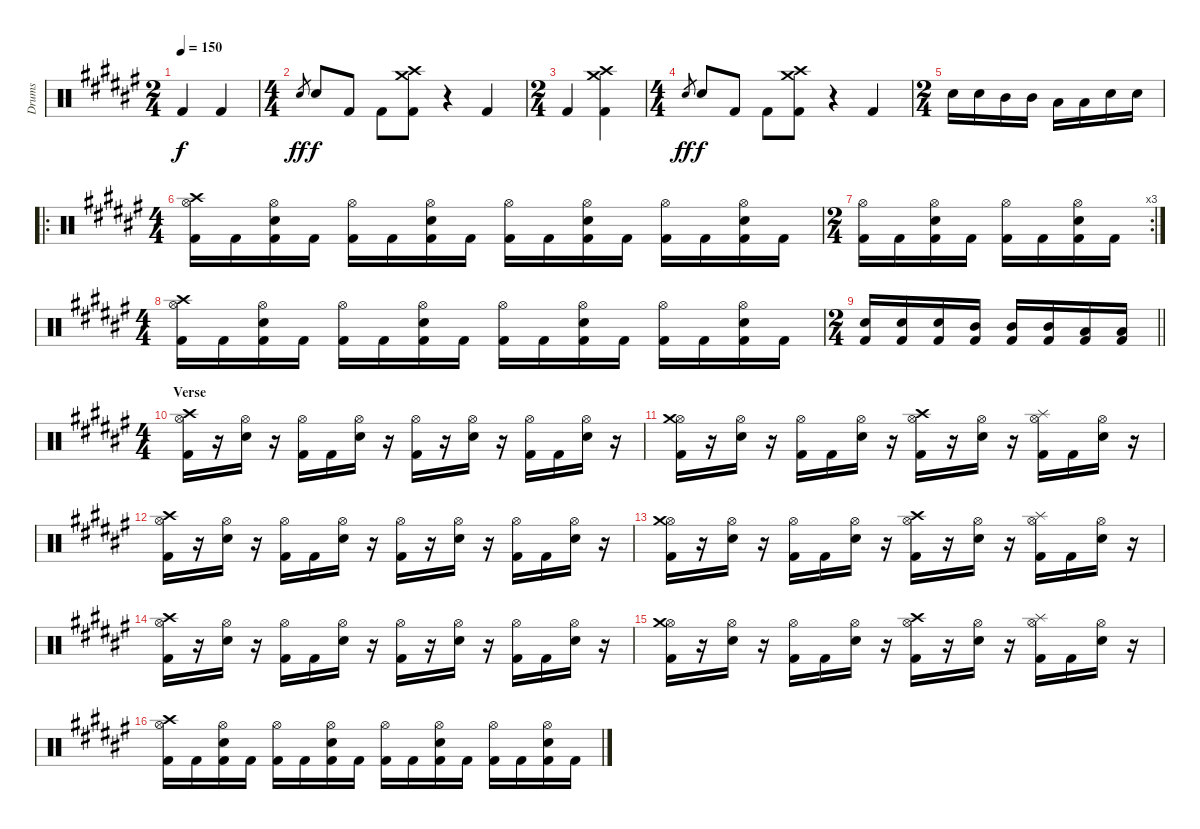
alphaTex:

\track ("Drums" "Drums") {instrument percussion}
\staff {score}
\articulation defaults
\ts (2 4)
\tempo 150
\clef neutral
\ks d#minor "Kick (hit) 2".4{dy f} "Kick (hit) 2".4
|
\ts (4 4)
"Electric Snare (hit)".8{gr dy ff} "Electric Snare (hit)".8{dy f} "Kick (hit) 2".8 "Kick (hit) 2".8 ("Kick (hit) 2" "Crash medium (hit)" "Crash high (hit)").8 r.4 "Kick (hit) 2".4 |
\ts (2 4)
"Kick (hit) 2".4 ("Kick (hit) 2" "Crash high (hit)" "Crash medium (hit)").4 |
\ts (4 4)
"Electric Snare (hit)".8{gr dy ff} "Electric Snare (hit)".8{dy f} "Kick (hit) 2".8 "Kick (hit) 2".8 ("Kick (hit) 2" "Crash medium (hit)" "Crash high (hit)").8 r.4 "Kick (hit) 2".4 |
\ts (2 4)
"Electric Snare (hit)".16 "Electric Snare (hit)".16 "Mid Tom (hit)".16 "Mid Tom (hit)".16 "Low Floor Tom (hit)".16 "Low Floor Tom (hit)".16 "Electric Snare (hit)".16 "Electric Snare (hit)".16 |
\ro
\ts (4 4)
("Kick (hit) 2" "Hi-Hat (open)" "Crash high (hit)").16 "Kick (hit) 2".16 ("Kick (hit) 2" "Electric Snare (hit)" "Hi-Hat (open)").16 "Kick (hit) 2".16 ("Kick (hit) 2" "Hi-Hat (open)").16 "Kick (hit) 2".16 ("Kick (hit) 2" "Electric Snare (hit)" "Hi-Hat (open)").16 "Kick (hit) 2".16 ("Kick (hit) 2" "Hi-Hat (open)").16 "Kick (hit) 2".16 ("Kick (hit) 2" "Electric Snare (hit)" "Hi-Hat (open)").16 "Kick (hit) 2".16 ("Kick (hit) 2" "Hi-Hat (open)").16 "Kick (hit) 2".16 ("Kick (hit) 2" "Electric Snare (hit)" "Hi-Hat (open)").16 "Kick (hit) 2".16 |
\rc 3
\ts (2 4)
("Kick (hit) 2" "Hi-Hat (open)").16 "Kick (hit) 2".16 ("Kick (hit) 2" "Electric Snare (hit)" "Hi-Hat (open)").16 "Kick (hit) 2".16 ("Kick (hit) 2" "Hi-Hat (open)").16 "Kick (hit) 2".16 ("Kick (hit) 2" "Electric Snare (hit)" "Hi-Hat (open)").16 "Kick (hit) 2".16 |
\ts (4 4)
("Kick (hit) 2" "Hi-Hat (open)" "Crash high (hit)").16 "Kick (hit) 2".16 ("Kick (hit) 2" "Electric Snare (hit)" "Hi-Hat (open)").16 "Kick (hit) 2".16 ("Kick (hit) 2" "Hi-Hat (open)").16 "Kick (hit) 2".16 ("Kick (hit) 2" "Electric Snare (hit)" "Hi-Hat (open)").16 "Kick (hit) 2".16 ("Kick (hit) 2" "Hi-Hat (open)").16 "Kick (hit) 2".16 ("Kick (hit) 2" "Electric Snare (hit)" "Hi-Hat (open)").16 "Kick (hit) 2".16 ("Kick (hit) 2" "Hi-Hat (open)").16 "Kick (hit) 2".16 ("Kick (hit) 2" "Electric Snare (hit)" "Hi-Hat (open)").16 "Kick (hit) 2".16 |
\ts (2 4)
\barLineRight lightlight
("Kick (hit) 2" "Electric Snare (hit)").16 ("Kick (hit) 2" "Electric Snare (hit)").16 ("Kick (hit) 2" "Electric Snare (hit)").16 ("Kick (hit) 2" "Mid Tom (hit)").16 ("Kick (hit) 2" "Mid Tom (hit)").16 ("Kick (hit) 2" "Mid Tom (hit)").16 ("Kick (hit) 2" "Low Floor Tom (hit)").16 ("Kick (hit) 2" "Low Floor Tom (hit)").16 |
\ts (4 4)
\section ("" "Verse")
("Kick (hit) 2" "Hi-Hat (open)" "Crash high (hit)").16 r.16 ("Electric Snare (hit)" "Hi-Hat (open)").16 r.16 ("Kick (hit) 2" "Hi-Hat (open)").16 "Kick (hit) 2".16 ("Electric Snare (hit)" "Hi-Hat (open)").16 r.16 ("Kick (hit) 2" "Hi-Hat (open)").16 r.16 ("Electric Snare (hit)" "Hi-Hat (open)").16 r.16 ("Kick (hit) 2" "Hi-Hat (open)").16 "Kick (hit) 2".16 ("Electric Snare (hit)" "Hi-Hat (open)").16 r.16 |
("Kick (hit) 2" "Hi-Hat (open)" "Crash medium (hit)").16 r.16 ("Electric Snare (hit)" "Hi-Hat (open)").16 r.16 ("Kick (hit) 2" "Hi-Hat (open)").16 "Kick (hit) 2".16 ("Electric Snare (hit)" "Hi-Hat (open)").16 r.16 ("Kick (hit) 2" "Hi-Hat (open)" "Crash high (hit)").16 r.16 ("Electric Snare (hit)" "Hi-Hat (open)").16 r.16 ("Kick (hit) 2" "Hi-Hat (open)" "Splash (hit)").16 "Kick (hit) 2".16 ("Electric Snare (hit)" "Hi-Hat (open)").16 r.16 |
("Kick (hit) 2" "Hi-Hat (open)" "Crash high (hit)").16 r.16 ("Electric Snare (hit)" "Hi-Hat (open)").16 r.16 ("Kick (hit) 2" "Hi-Hat (open)").16 "Kick (hit) 2".16 ("Electric Snare (hit)" "Hi-Hat (open)").16 r.16 ("Kick (hit) 2" "Hi-Hat (open)").16 r.16 ("Electric Snare (hit)" "Hi-Hat (open)").16 r.16 ("Kick (hit) 2" "Hi-Hat (open)").16 "Kick (hit) 2".16 ("Electric Snare (hit)" "Hi-Hat (open)").16 r.16 |
("Kick (hit) 2" "Hi-Hat (open)" "Crash medium (hit)").16 r.16 ("Electric Snare (hit)" "Hi-Hat (open)").16 r.16 ("Kick (hit) 2" "Hi-Hat (open)").16 "Kick (hit) 2".16 ("Electric Snare (hit)" "Hi-Hat (open)").16 r.16 ("Kick (hit) 2" "Hi-Hat (open)" "Crash high (hit)").16 r.16 ("Electric Snare (hit)" "Hi-Hat (open)").16 r.16 ("Kick (hit) 2" "Hi-Hat (open)" "Splash (hit)").16 "Kick (hit) 2".16 ("Electric Snare (hit)" "Hi-Hat (open)").16 r.16 |
("Kick (hit) 2" "Hi-Hat (open)" "Crash high (hit)").16 r.16 ("Electric Snare (hit)" "Hi-Hat (open)").16 r.16 ("Kick (hit) 2" "Hi-Hat (open)").16 "Kick (hit) 2".16 ("Electric Snare (hit)" "Hi-Hat (open)").16 r.16 ("Kick (hit) 2" "Hi-Hat (open)").16 r.16 ("Electric Snare (hit)" "Hi-Hat (open)").16 r.16 ("Kick (hit) 2" "Hi-Hat (open)").16 "Kick (hit) 2".16 ("Electric Snare (hit)" "Hi-Hat (open)").16 r.16 |
("Kick (hit) 2" "Hi-Hat (open)" "Crash medium (hit)").16 r.16 ("Electric Snare (hit)" "Hi-Hat (open)").16 r.16 ("Kick (hit) 2" "Hi-Hat (open)").16 "Kick (hit) 2".16 ("Electric Snare (hit)" "Hi-Hat (open)").16 r.16 ("Kick (hit) 2" "Hi-Hat (open)" "Crash high (hit)").16 r.16 ("Electric Snare (hit)" "Hi-Hat (open)").16 r.16 ("Kick (hit) 2" "Hi-Hat (open)" "Splash (hit)").16 "Kick (hit) 2".16 ("Electric Snare (hit)" "Hi-Hat (open)").16 r.16 |
("Kick (hit) 2" "Hi-Hat (open)" "Crash high (hit)").16 "Kick (hit) 2".16 ("Kick (hit) 2" "Electric Snare (hit)" "Hi-Hat (open)").16 "Kick (hit) 2".16 ("Kick (hit) 2" "Hi-Hat (open)").16 "Kick (hit) 2".16 ("Kick (hit) 2" "Electric Snare (hit)" "Hi-Hat (open)").16 "Kick (hit) 2".16 ("Kick (hit) 2" "Hi-Hat (open)").16 "Kick (hit) 2".16 ("Kick (hit) 2" "Electric Snare (hit)" "Hi-Hat (open)").16 "Kick (hit) 2".16 ("Kick (hit) 2" "Hi-Hat (open)").16 "Kick (hit) 2".16 ("Kick (hit) 2" "Electric Snare (hit)" "Hi-Hat (open)").16 "Kick (hit) 2".16
